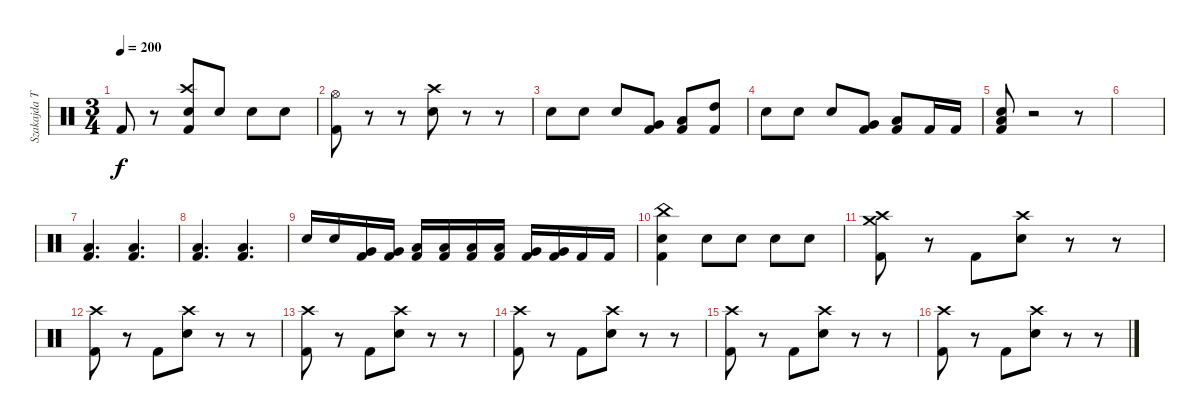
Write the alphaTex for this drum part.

\track ("Szakajda Tibi" "Szakajda T") {instrument percussion}
\staff {score}
\articulation defaults
\ts (3 4)
\tempo 200
\clef neutral
\ks c "Kick (hit) 2".8{dy f}
r.8 ("Crash high (hit)" "Electric Snare (hit)" "Kick (hit) 2").8 "Electric Snare (hit)".8 "Electric Snare (hit)".8 "Electric Snare (hit)".8 |
("Hi-Hat (open)" "Kick (hit) 2").8 r.8 r.8 ("Crash high (hit)" "Electric Snare (hit)").8 r.8 r.8 |
"Electric Snare (hit)".8 "Electric Snare (hit)".8 "Electric Snare (hit)".8 ("Very Low Tom (hit)" "Kick (hit) 2").8 ("Low Tom (hit)" "Kick (hit) 2").8 ("High Tom (hit)" "Kick (hit) 2").8 |
"Electric Snare (hit)".8 "Electric Snare (hit)".8 "Electric Snare (hit)".8 ("Very Low Tom (hit)" "Kick (hit) 2").8 ("Low Tom (hit)" "Kick (hit) 2").8 "Kick (hit) 2".16 "Kick (hit) 2".16 |
("Low Floor Tom (hit)" "Electric Snare (hit)" "Kick (hit) 2").8 r.2 r.8 |
|
("Low Floor Tom (hit)" "Kick (hit) 2").4{d} ("Low Floor Tom (hit)" "Kick (hit) 2").4{d} |
("Low Floor Tom (hit)" "Kick (hit) 2").4{d} ("Low Floor Tom (hit)" "Kick (hit) 2").4{d} |
"Electric Snare (hit)".16 "Electric Snare (hit)".16 ("Very Low Tom (hit)" "Kick (hit) 2").16 ("Very Low Tom (hit)" "Kick (hit) 2").16 ("Low Tom (hit)" "Kick (hit) 2").16 ("Low Tom (hit)" "Kick (hit) 2").16 ("Low Floor Tom (hit)" "Kick (hit) 2").16 ("Low Floor Tom (hit)" "Kick (hit) 2").16 ("Very Low Tom (hit)" "Kick (hit) 2").16 ("Very Low Tom (hit)" "Kick (hit) 2").16 "Kick (hit) 2".16 "Kick (hit) 2".16 |
("China (hit)" "Electric Snare (hit)" "Kick (hit) 2").4 "Electric Snare (hit)".8 "Electric Snare (hit)".8 "Electric Snare (hit)".8 "Electric Snare (hit)".8 |
("Crash high (hit)" "Crash medium (hit)" "Kick (hit) 2").8 r.8 "Kick (hit) 2".8 ("Crash high (hit)" "Electric Snare (hit)").8 r.8 r.8 |
("Crash high (hit)" "Kick (hit) 2").8 r.8 "Kick (hit) 2".8 ("Crash high (hit)" "Electric Snare (hit)").8 r.8 r.8 |
("Crash high (hit)" "Kick (hit) 2").8 r.8 "Kick (hit) 2".8 ("Crash high (hit)" "Electric Snare (hit)").8 r.8 r.8 |
("Crash high (hit)" "Kick (hit) 2").8 r.8 "Kick (hit) 2".8 ("Crash high (hit)" "Electric Snare (hit)").8 r.8 r.8 |
("Crash high (hit)" "Kick (hit) 2").8 r.8 "Kick (hit) 2".8 ("Crash high (hit)" "Electric Snare (hit)").8 r.8 r.8 |
("Crash high (hit)" "Kick (hit) 2").8 r.8 "Kick (hit) 2".8 ("Crash high (hit)" "Electric Snare (hit)").8 r.8 r.8
